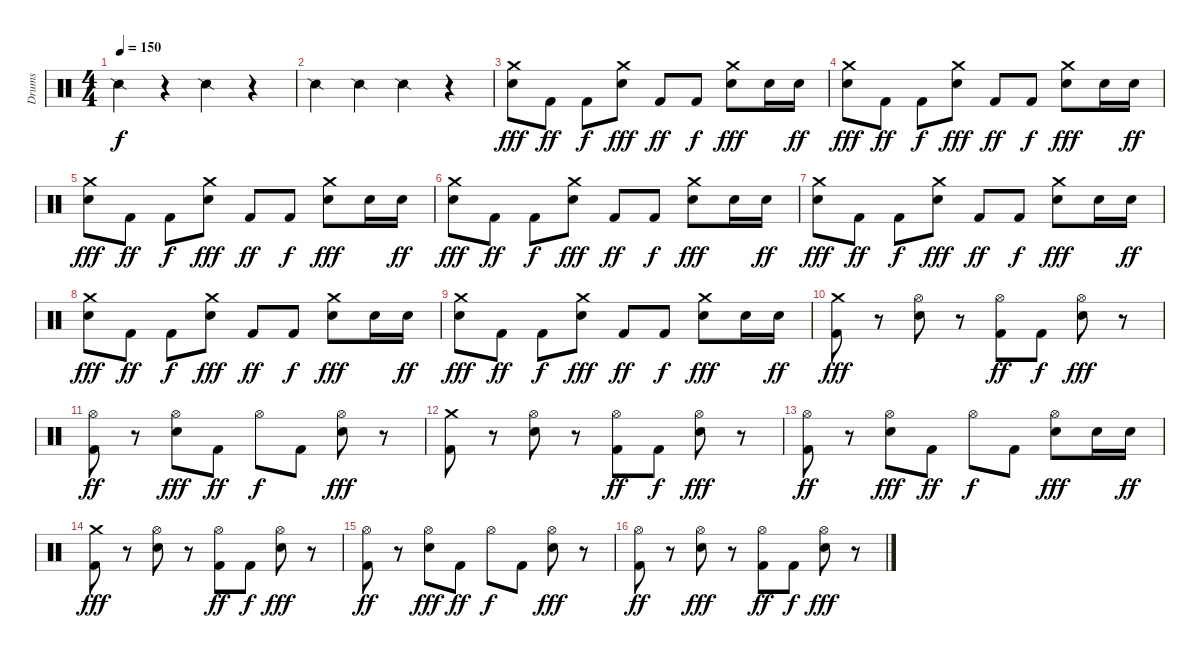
\track ("Drums" "Drums") {instrument percussion}
\staff {score}
\articulation defaults
\ts (4 4)
\tempo 150
\clef neutral
\ks c "Snare (side stick) 2".4{dy f}
r.4 "Snare (side stick) 2".4 r.4 |
"Snare (side stick) 2".4 "Snare (side stick) 2".4 "Snare (side stick) 2".4 r.4 |
("Snare (hit) 2" "Crash medium (hit)").8{dy fff} "Kick (hit) 2".8{dy ff} "Kick (hit) 2".8{dy f} ("Snare (hit) 2" "Crash medium (hit)").8{dy fff} "Kick (hit) 2".8{dy ff} "Kick (hit) 2".8{dy f} ("Snare (hit) 2" "Crash medium (hit)").8{dy fff} "Snare (hit) 2".16 "Snare (hit) 2".16{dy ff} |
("Snare (hit) 2" "Crash medium (hit)").8{dy fff} "Kick (hit) 2".8{dy ff} "Kick (hit) 2".8{dy f} ("Snare (hit) 2" "Crash medium (hit)").8{dy fff} "Kick (hit) 2".8{dy ff} "Kick (hit) 2".8{dy f} ("Snare (hit) 2" "Crash medium (hit)").8{dy fff} "Snare (hit) 2".16 "Snare (hit) 2".16{dy ff} |
("Snare (hit) 2" "Crash medium (hit)").8{dy fff} "Kick (hit) 2".8{dy ff} "Kick (hit) 2".8{dy f} ("Snare (hit) 2" "Crash medium (hit)").8{dy fff} "Kick (hit) 2".8{dy ff} "Kick (hit) 2".8{dy f} ("Snare (hit) 2" "Crash medium (hit)").8{dy fff} "Snare (hit) 2".16 "Snare (hit) 2".16{dy ff} |
("Snare (hit) 2" "Crash medium (hit)").8{dy fff} "Kick (hit) 2".8{dy ff} "Kick (hit) 2".8{dy f} ("Snare (hit) 2" "Crash medium (hit)").8{dy fff} "Kick (hit) 2".8{dy ff} "Kick (hit) 2".8{dy f} ("Snare (hit) 2" "Crash medium (hit)").8{dy fff} "Snare (hit) 2".16 "Snare (hit) 2".16{dy ff} |
("Snare (hit) 2" "Crash medium (hit)").8{dy fff} "Kick (hit) 2".8{dy ff} "Kick (hit) 2".8{dy f} ("Snare (hit) 2" "Crash medium (hit)").8{dy fff} "Kick (hit) 2".8{dy ff} "Kick (hit) 2".8{dy f} ("Snare (hit) 2" "Crash medium (hit)").8{dy fff} "Snare (hit) 2".16 "Snare (hit) 2".16{dy ff} |
("Snare (hit) 2" "Crash medium (hit)").8{dy fff} "Kick (hit) 2".8{dy ff} "Kick (hit) 2".8{dy f} ("Snare (hit) 2" "Crash medium (hit)").8{dy fff} "Kick (hit) 2".8{dy ff} "Kick (hit) 2".8{dy f} ("Snare (hit) 2" "Crash medium (hit)").8{dy fff} "Snare (hit) 2".16 "Snare (hit) 2".16{dy ff} |
("Snare (hit) 2" "Crash medium (hit)").8{dy fff} "Kick (hit) 2".8{dy ff} "Kick (hit) 2".8{dy f} ("Snare (hit) 2" "Crash medium (hit)").8{dy fff} "Kick (hit) 2".8{dy ff} "Kick (hit) 2".8{dy f} ("Snare (hit) 2" "Crash medium (hit)").8{dy fff} "Snare (hit) 2".16 "Snare (hit) 2".16{dy ff} |
("Kick (hit) 2" "Crash medium (hit)").8{dy fff} r.8 ("Snare (hit) 2" "Hi-Hat (open)").8 r.8 ("Kick (hit) 2" "Hi-Hat (open)").8{dy ff} "Kick (hit) 2".8{dy f} ("Snare (hit) 2" "Hi-Hat (open)").8{dy fff} r.8 |
("Kick (hit) 2" "Hi-Hat (open)").8{dy ff} r.8 ("Snare (hit) 2" "Hi-Hat (open)").8{dy fff} "Kick (hit) 2".8{dy ff} "Hi-Hat (open)".8{dy f} "Kick (hit) 2".8 ("Snare (hit) 2" "Hi-Hat (open)").8{dy fff} r.8 |
("Kick (hit) 2" "Crash medium (hit)").8 r.8 ("Snare (hit) 2" "Hi-Hat (open)").8 r.8 ("Kick (hit) 2" "Hi-Hat (open)").8{dy ff} "Kick (hit) 2".8{dy f} ("Snare (hit) 2" "Hi-Hat (open)").8{dy fff} r.8 |
("Kick (hit) 2" "Hi-Hat (open)").8{dy ff} r.8 ("Snare (hit) 2" "Hi-Hat (open)").8{dy fff} "Kick (hit) 2".8{dy ff} "Hi-Hat (open)".8{dy f} "Kick (hit) 2".8 ("Snare (hit) 2" "Hi-Hat (open)").8{dy fff} "Snare (hit) 2".16 "Snare (hit) 2".16{dy ff} |
("Kick (hit) 2" "Crash medium (hit)").8{dy fff} r.8 ("Snare (hit) 2" "Hi-Hat (open)").8 r.8 ("Kick (hit) 2" "Hi-Hat (open)").8{dy ff} "Kick (hit) 2".8{dy f} ("Snare (hit) 2" "Hi-Hat (open)").8{dy fff} r.8 |
("Kick (hit) 2" "Hi-Hat (open)").8{dy ff} r.8 ("Snare (hit) 2" "Hi-Hat (open)").8{dy fff} "Kick (hit) 2".8{dy ff} "Hi-Hat (open)".8{dy f} "Kick (hit) 2".8 ("Snare (hit) 2" "Hi-Hat (open)").8{dy fff} r.8 |
("Hi-Hat (open)" "Kick (hit) 2").8{dy ff} r.8 ("Snare (hit) 2" "Hi-Hat (open)").8{dy fff} r.8 ("Kick (hit) 2" "Hi-Hat (open)").8{dy ff} "Kick (hit) 2".8{dy f} ("Snare (hit) 2" "Hi-Hat (open)").8{dy fff} r.8
